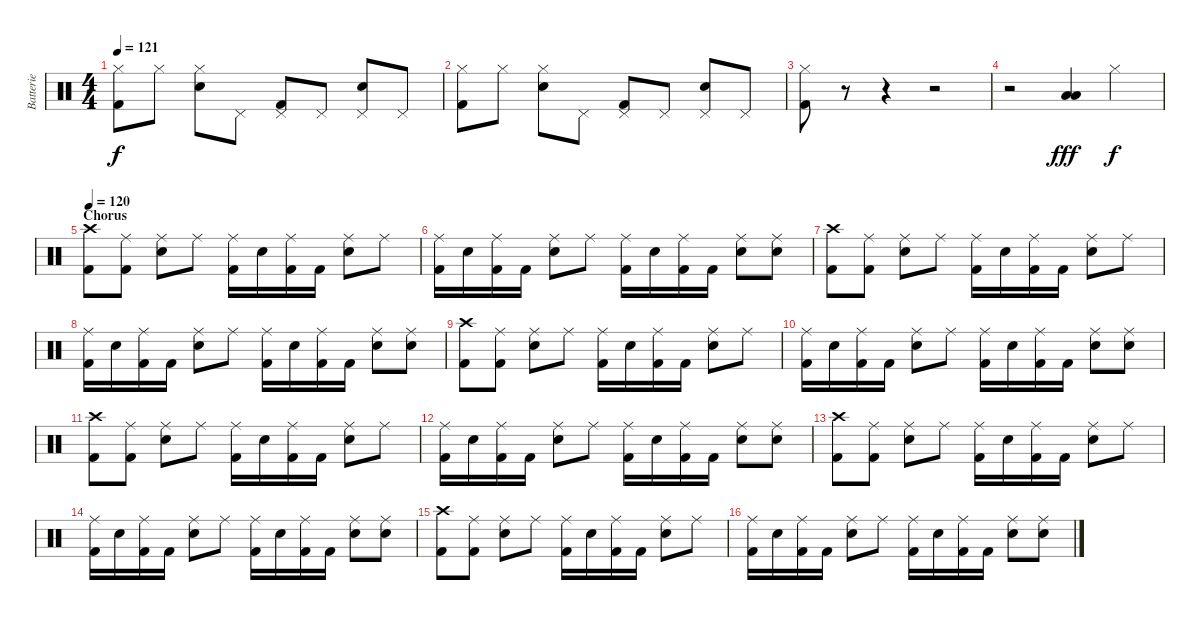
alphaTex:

\track ("Batterie" "Batterie") {instrument percussion}
\staff {score}
\articulation defaults
\ts (4 4)
\tempo 121
\clef neutral
\ks c
("Hi-Hat (closed)" "Kick (hit) 2").8{dy f} "Hi-Hat (closed)".8 ("Hi-Hat (closed)" "Electric Snare (hit)").8 "Pedal Hi-Hat (hit)".8 ("Pedal Hi-Hat (hit)" "Kick (hit) 2").8 "Pedal Hi-Hat (hit)".8 ("Pedal Hi-Hat (hit)" "Electric Snare (hit)").8 "Pedal Hi-Hat (hit)".8 |
("Hi-Hat (closed)" "Kick (hit) 2").8 "Hi-Hat (closed)".8 ("Hi-Hat (closed)" "Electric Snare (hit)").8 "Pedal Hi-Hat (hit)".8 ("Pedal Hi-Hat (hit)" "Kick (hit) 2").8 "Pedal Hi-Hat (hit)".8 ("Pedal Hi-Hat (hit)" "Electric Snare (hit)").8 "Pedal Hi-Hat (hit)".8 |
("Hi-Hat (closed)" "Kick (hit) 2").8 r.8 r.4 r.2 |
r.2 ("Low Tom (hit)" "Low Tom (hit)").4{dy fff} "Hi-Hat (closed)".4{dy f} |
\section ("" "Chorus")
\tempo 120
("Crash high (hit)" "Kick (hit) 2").8 ("Ride (middle)" "Kick (hit) 2").8 ("Ride (middle)" "Electric Snare (hit)").8 "Ride (middle)".8 ("Ride (middle)" "Kick (hit) 2").16 "Electric Snare (hit)".16 ("Ride (middle)" "Kick (hit) 2").16 "Kick (hit) 2".16 ("Ride (middle)" "Electric Snare (hit)").8 "Ride (middle)".8 |
("Ride (middle)" "Kick (hit) 2").16 "Electric Snare (hit)".16 ("Ride (middle)" "Kick (hit) 2").16 "Kick (hit) 2".16 ("Ride (middle)" "Electric Snare (hit)").8 "Ride (middle)".8 ("Ride (middle)" "Kick (hit) 2").16 "Electric Snare (hit)".16 ("Ride (middle)" "Kick (hit) 2").16 "Kick (hit) 2".16 ("Ride (middle)" "Electric Snare (hit)").8 ("Ride (middle)" "Electric Snare (hit)").8 |
("Crash high (hit)" "Kick (hit) 2").8 ("Ride (middle)" "Kick (hit) 2").8 ("Ride (middle)" "Electric Snare (hit)").8 "Ride (middle)".8 ("Ride (middle)" "Kick (hit) 2").16 "Electric Snare (hit)".16 ("Ride (middle)" "Kick (hit) 2").16 "Kick (hit) 2".16 ("Ride (middle)" "Electric Snare (hit)").8 "Ride (middle)".8 |
("Ride (middle)" "Kick (hit) 2").16 "Electric Snare (hit)".16 ("Ride (middle)" "Kick (hit) 2").16 "Kick (hit) 2".16 ("Ride (middle)" "Electric Snare (hit)").8 "Ride (middle)".8 ("Ride (middle)" "Kick (hit) 2").16 "Electric Snare (hit)".16 ("Ride (middle)" "Kick (hit) 2").16 "Kick (hit) 2".16 ("Ride (middle)" "Electric Snare (hit)").8 ("Ride (middle)" "Electric Snare (hit)").8 |
("Crash high (hit)" "Kick (hit) 2").8 ("Ride (middle)" "Kick (hit) 2").8 ("Ride (middle)" "Electric Snare (hit)").8 "Ride (middle)".8 ("Ride (middle)" "Kick (hit) 2").16 "Electric Snare (hit)".16 ("Ride (middle)" "Kick (hit) 2").16 "Kick (hit) 2".16 ("Ride (middle)" "Electric Snare (hit)").8 "Ride (middle)".8 |
("Ride (middle)" "Kick (hit) 2").16 "Electric Snare (hit)".16 ("Ride (middle)" "Kick (hit) 2").16 "Kick (hit) 2".16 ("Ride (middle)" "Electric Snare (hit)").8 "Ride (middle)".8 ("Ride (middle)" "Kick (hit) 2").16 "Electric Snare (hit)".16 ("Ride (middle)" "Kick (hit) 2").16 "Kick (hit) 2".16 ("Ride (middle)" "Electric Snare (hit)").8 ("Ride (middle)" "Electric Snare (hit)").8 |
("Crash high (hit)" "Kick (hit) 2").8 ("Ride (middle)" "Kick (hit) 2").8 ("Ride (middle)" "Electric Snare (hit)").8 "Ride (middle)".8 ("Ride (middle)" "Kick (hit) 2").16 "Electric Snare (hit)".16 ("Ride (middle)" "Kick (hit) 2").16 "Kick (hit) 2".16 ("Ride (middle)" "Electric Snare (hit)").8 "Ride (middle)".8 |
("Ride (middle)" "Kick (hit) 2").16 "Electric Snare (hit)".16 ("Ride (middle)" "Kick (hit) 2").16 "Kick (hit) 2".16 ("Ride (middle)" "Electric Snare (hit)").8 "Ride (middle)".8 ("Ride (middle)" "Kick (hit) 2").16 "Electric Snare (hit)".16 ("Ride (middle)" "Kick (hit) 2").16 "Kick (hit) 2".16 ("Ride (middle)" "Electric Snare (hit)").8 ("Ride (middle)" "Electric Snare (hit)").8 |
("Crash high (hit)" "Kick (hit) 2").8 ("Ride (middle)" "Kick (hit) 2").8 ("Ride (middle)" "Electric Snare (hit)").8 "Ride (middle)".8 ("Ride (middle)" "Kick (hit) 2").16 "Electric Snare (hit)".16 ("Ride (middle)" "Kick (hit) 2").16 "Kick (hit) 2".16 ("Ride (middle)" "Electric Snare (hit)").8 "Ride (middle)".8 |
("Ride (middle)" "Kick (hit) 2").16 "Electric Snare (hit)".16 ("Ride (middle)" "Kick (hit) 2").16 "Kick (hit) 2".16 ("Ride (middle)" "Electric Snare (hit)").8 "Ride (middle)".8 ("Ride (middle)" "Kick (hit) 2").16 "Electric Snare (hit)".16 ("Ride (middle)" "Kick (hit) 2").16 "Kick (hit) 2".16 ("Ride (middle)" "Electric Snare (hit)").8 ("Ride (middle)" "Electric Snare (hit)").8 |
("Crash high (hit)" "Kick (hit) 2").8 ("Ride (middle)" "Kick (hit) 2").8 ("Ride (middle)" "Electric Snare (hit)").8 "Ride (middle)".8 ("Ride (middle)" "Kick (hit) 2").16 "Electric Snare (hit)".16 ("Ride (middle)" "Kick (hit) 2").16 "Kick (hit) 2".16 ("Ride (middle)" "Electric Snare (hit)").8 "Ride (middle)".8 |
("Ride (middle)" "Kick (hit) 2").16 "Electric Snare (hit)".16 ("Ride (middle)" "Kick (hit) 2").16 "Kick (hit) 2".16 ("Ride (middle)" "Electric Snare (hit)").8 "Ride (middle)".8 ("Ride (middle)" "Kick (hit) 2").16 "Electric Snare (hit)".16 ("Ride (middle)" "Kick (hit) 2").16 "Kick (hit) 2".16 ("Ride (middle)" "Electric Snare (hit)").8 ("Ride (middle)" "Electric Snare (hit)").8
